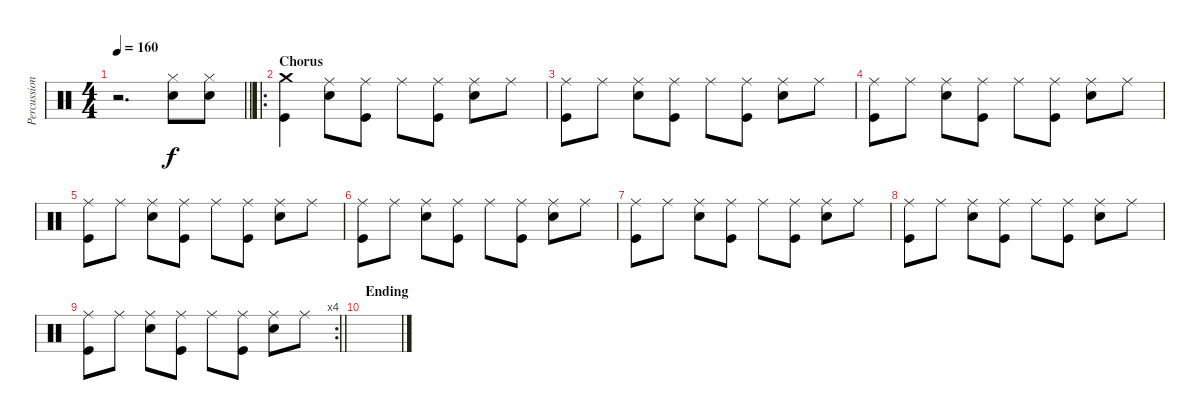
\track ("Percussion" "Percussion") {instrument percussion}
\staff {score}
\articulation defaults
\ts (4 4)
\tempo 160
\clef neutral
\barLineRight lightlight
\ks c
r.2{d dy f} ("Hi-Hat (closed)" "Snare (hit) 2").8 ("Hi-Hat (closed)" "Snare (hit) 2").8 |
\ro
\section ("" "Chorus")
("Kick (hit)" "Crash medium (hit)").4 ("Ride (middle)" "Snare (hit) 2").8 ("Kick (hit)" "Ride (middle)").8 "Ride (middle)".8 ("Kick (hit)" "Ride (middle)").8 ("Ride (middle)" "Snare (hit) 2").8 "Ride (middle)".8 |
("Kick (hit)" "Ride (middle)").8 "Ride (middle)".8 ("Ride (middle)" "Snare (hit) 2").8 ("Kick (hit)" "Ride (middle)").8 "Ride (middle)".8 ("Kick (hit)" "Ride (middle)").8 ("Ride (middle)" "Snare (hit) 2").8 "Ride (middle)".8 |
("Kick (hit)" "Ride (middle)").8 "Ride (middle)".8 ("Ride (middle)" "Snare (hit) 2").8 ("Kick (hit)" "Ride (middle)").8 "Ride (middle)".8 ("Kick (hit)" "Ride (middle)").8 ("Ride (middle)" "Snare (hit) 2").8 "Ride (middle)".8 |
("Kick (hit)" "Ride (middle)").8 "Ride (middle)".8 ("Ride (middle)" "Snare (hit) 2").8 ("Kick (hit)" "Ride (middle)").8 "Ride (middle)".8 ("Kick (hit)" "Ride (middle)").8 ("Ride (middle)" "Snare (hit) 2").8 "Ride (middle)".8 |
("Kick (hit)" "Ride (middle)").8 "Ride (middle)".8 ("Ride (middle)" "Snare (hit) 2").8 ("Kick (hit)" "Ride (middle)").8 "Ride (middle)".8 ("Kick (hit)" "Ride (middle)").8 ("Ride (middle)" "Snare (hit) 2").8 "Ride (middle)".8 |
("Kick (hit)" "Ride (middle)").8 "Ride (middle)".8 ("Ride (middle)" "Snare (hit) 2").8 ("Kick (hit)" "Ride (middle)").8 "Ride (middle)".8 ("Kick (hit)" "Ride (middle)").8 ("Ride (middle)" "Snare (hit) 2").8 "Ride (middle)".8 |
("Kick (hit)" "Ride (middle)").8 "Ride (middle)".8 ("Ride (middle)" "Snare (hit) 2").8 ("Kick (hit)" "Ride (middle)").8 "Ride (middle)".8 ("Kick (hit)" "Ride (middle)").8 ("Ride (middle)" "Snare (hit) 2").8 "Ride (middle)".8 |
\rc 4
\barLineRight lightlight
("Kick (hit)" "Ride (middle)").8 "Ride (middle)".8 ("Ride (middle)" "Snare (hit) 2").8 ("Kick (hit)" "Ride (middle)").8 "Ride (middle)".8 ("Kick (hit)" "Ride (middle)").8 ("Ride (middle)" "Snare (hit) 2").8 "Ride (middle)".8 |
\section ("" "Ending")
